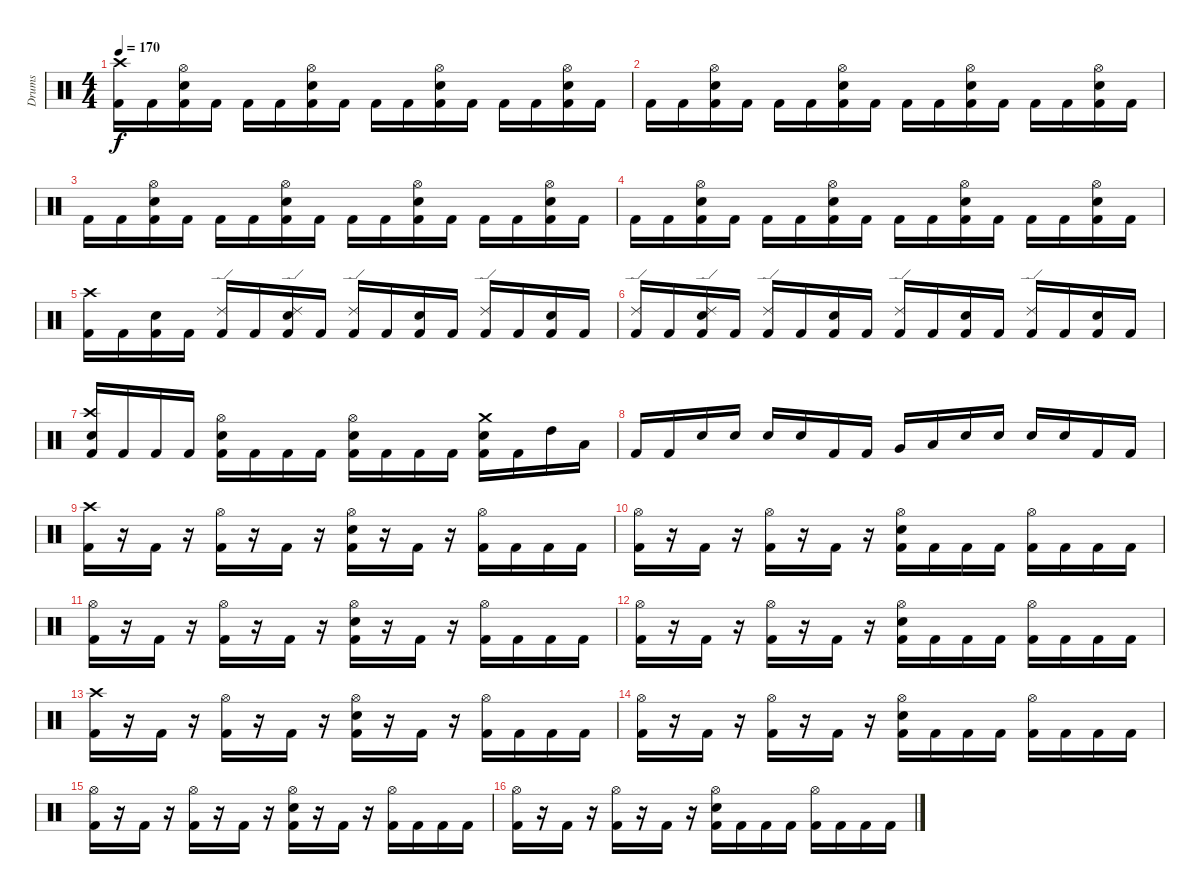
\track ("Drums" "Drums") {instrument percussion}
\staff {score}
\articulation defaults
\ts (4 4)
\tempo 170
\clef neutral
\ks c
("Kick (hit) 2" "Crash high (hit)").16{dy f} "Kick (hit) 2".16 ("Kick (hit) 2" "Electric Snare (hit)" "Hi-Hat (open)").16 "Kick (hit) 2".16 "Kick (hit) 2".16 "Kick (hit) 2".16 ("Kick (hit) 2" "Electric Snare (hit)" "Hi-Hat (open)").16 "Kick (hit) 2".16 "Kick (hit) 2".16 "Kick (hit) 2".16 ("Kick (hit) 2" "Electric Snare (hit)" "Hi-Hat (open)").16 "Kick (hit) 2".16 "Kick (hit) 2".16 "Kick (hit) 2".16 ("Kick (hit) 2" "Electric Snare (hit)" "Hi-Hat (open)").16 "Kick (hit) 2".16 |
"Kick (hit) 2".16 "Kick (hit) 2".16 ("Kick (hit) 2" "Electric Snare (hit)" "Hi-Hat (open)").16 "Kick (hit) 2".16 "Kick (hit) 2".16 "Kick (hit) 2".16 ("Kick (hit) 2" "Electric Snare (hit)" "Hi-Hat (open)").16 "Kick (hit) 2".16 "Kick (hit) 2".16 "Kick (hit) 2".16 ("Kick (hit) 2" "Electric Snare (hit)" "Hi-Hat (open)").16 "Kick (hit) 2".16 "Kick (hit) 2".16 "Kick (hit) 2".16 ("Kick (hit) 2" "Electric Snare (hit)" "Hi-Hat (open)").16 "Kick (hit) 2".16 |
"Kick (hit) 2".16 "Kick (hit) 2".16 ("Kick (hit) 2" "Electric Snare (hit)" "Hi-Hat (open)").16 "Kick (hit) 2".16 "Kick (hit) 2".16 "Kick (hit) 2".16 ("Kick (hit) 2" "Electric Snare (hit)" "Hi-Hat (open)").16 "Kick (hit) 2".16 "Kick (hit) 2".16 "Kick (hit) 2".16 ("Kick (hit) 2" "Electric Snare (hit)" "Hi-Hat (open)").16 "Kick (hit) 2".16 "Kick (hit) 2".16 "Kick (hit) 2".16 ("Kick (hit) 2" "Electric Snare (hit)" "Hi-Hat (open)").16 "Kick (hit) 2".16 |
"Kick (hit) 2".16 "Kick (hit) 2".16 ("Kick (hit) 2" "Electric Snare (hit)" "Hi-Hat (open)").16 "Kick (hit) 2".16 "Kick (hit) 2".16 "Kick (hit) 2".16 ("Kick (hit) 2" "Electric Snare (hit)" "Hi-Hat (open)").16 "Kick (hit) 2".16 "Kick (hit) 2".16 "Kick (hit) 2".16 ("Kick (hit) 2" "Electric Snare (hit)" "Hi-Hat (open)").16 "Kick (hit) 2".16 "Kick (hit) 2".16 "Kick (hit) 2".16 ("Kick (hit) 2" "Electric Snare (hit)" "Hi-Hat (open)").16 "Kick (hit) 2".16 |
("Kick (hit) 2" "Crash high (hit)").16 "Kick (hit) 2".16 ("Kick (hit) 2" "Electric Snare (hit)").16 "Kick (hit) 2".16 ("Kick (hit) 2" "Ride (edge) 2").16 "Kick (hit) 2".16 ("Kick (hit) 2" "Electric Snare (hit)" "Ride (edge) 2").16 "Kick (hit) 2".16 ("Kick (hit) 2" "Ride (edge) 2").16 "Kick (hit) 2".16 ("Kick (hit) 2" "Electric Snare (hit)").16 "Kick (hit) 2".16 ("Kick (hit) 2" "Ride (edge) 2").16 "Kick (hit) 2".16 ("Kick (hit) 2" "Electric Snare (hit)").16 "Kick (hit) 2".16 |
("Kick (hit) 2" "Ride (edge) 2").16 "Kick (hit) 2".16 ("Kick (hit) 2" "Electric Snare (hit)" "Ride (edge) 2").16 "Kick (hit) 2".16 ("Kick (hit) 2" "Ride (edge) 2").16 "Kick (hit) 2".16 ("Kick (hit) 2" "Electric Snare (hit)").16 "Kick (hit) 2".16 ("Kick (hit) 2" "Ride (edge) 2").16 "Kick (hit) 2".16 ("Kick (hit) 2" "Electric Snare (hit)").16 "Kick (hit) 2".16 ("Kick (hit) 2" "Ride (edge) 2").16 "Kick (hit) 2".16 ("Kick (hit) 2" "Electric Snare (hit)").16 "Kick (hit) 2".16 |
("Kick (hit) 2" "Electric Snare (hit)" "Crash high (hit)").16 "Kick (hit) 2".16 "Kick (hit) 2".16 "Kick (hit) 2".16 ("Kick (hit) 2" "Electric Snare (hit)" "Hi-Hat (open)").16 "Kick (hit) 2".16 "Kick (hit) 2".16 "Kick (hit) 2".16 ("Kick (hit) 2" "Electric Snare (hit)" "Hi-Hat (open)").16 "Kick (hit) 2".16 "Kick (hit) 2".16 "Kick (hit) 2".16 ("Kick (hit) 2" "Electric Snare (hit)" "Crash medium (hit)").16 "Kick (hit) 2".16 "High Tom (hit)".16 "Low Tom (hit)".16 |
"Kick (hit) 2".16 "Kick (hit) 2".16 "Electric Snare (hit)".16 "Electric Snare (hit)".16 "Electric Snare (hit)".16 "Electric Snare (hit)".16 "Kick (hit) 2".16 "Kick (hit) 2".16 "Very Low Tom (hit)".16 "Low Tom (hit)".16 "Electric Snare (hit)".16 "Electric Snare (hit)".16 "Electric Snare (hit)".16 "Electric Snare (hit)".16 "Kick (hit) 2".16 "Kick (hit) 2".16 |
("Kick (hit) 2" "Crash high (hit)").16 r.16 "Kick (hit) 2".16 r.16 ("Kick (hit) 2" "Hi-Hat (open)").16 r.16 "Kick (hit) 2".16 r.16 ("Kick (hit) 2" "Electric Snare (hit)" "Hi-Hat (open)").16 r.16 "Kick (hit) 2".16 r.16 ("Kick (hit) 2" "Hi-Hat (open)").16 "Kick (hit) 2".16 "Kick (hit) 2".16 "Kick (hit) 2".16 |
("Kick (hit) 2" "Hi-Hat (open)").16 r.16 "Kick (hit) 2".16 r.16 ("Kick (hit) 2" "Hi-Hat (open)").16 r.16 "Kick (hit) 2".16 r.16 ("Kick (hit) 2" "Electric Snare (hit)" "Hi-Hat (open)").16 "Kick (hit) 2".16 "Kick (hit) 2".16 "Kick (hit) 2".16 ("Kick (hit) 2" "Hi-Hat (open)").16 "Kick (hit) 2".16 "Kick (hit) 2".16 "Kick (hit) 2".16 |
("Kick (hit) 2" "Hi-Hat (open)").16 r.16 "Kick (hit) 2".16 r.16 ("Kick (hit) 2" "Hi-Hat (open)").16 r.16 "Kick (hit) 2".16 r.16 ("Kick (hit) 2" "Electric Snare (hit)" "Hi-Hat (open)").16 r.16 "Kick (hit) 2".16 r.16 ("Kick (hit) 2" "Hi-Hat (open)").16 "Kick (hit) 2".16 "Kick (hit) 2".16 "Kick (hit) 2".16 |
("Kick (hit) 2" "Hi-Hat (open)").16 r.16 "Kick (hit) 2".16 r.16 ("Kick (hit) 2" "Hi-Hat (open)").16 r.16 "Kick (hit) 2".16 r.16 ("Kick (hit) 2" "Electric Snare (hit)" "Hi-Hat (open)").16 "Kick (hit) 2".16 "Kick (hit) 2".16 "Kick (hit) 2".16 ("Kick (hit) 2" "Hi-Hat (open)").16 "Kick (hit) 2".16 "Kick (hit) 2".16 "Kick (hit) 2".16 |
("Kick (hit) 2" "Crash high (hit)").16 r.16 "Kick (hit) 2".16 r.16 ("Kick (hit) 2" "Hi-Hat (open)").16 r.16 "Kick (hit) 2".16 r.16 ("Kick (hit) 2" "Electric Snare (hit)" "Hi-Hat (open)").16 r.16 "Kick (hit) 2".16 r.16 ("Kick (hit) 2" "Hi-Hat (open)").16 "Kick (hit) 2".16 "Kick (hit) 2".16 "Kick (hit) 2".16 |
("Kick (hit) 2" "Hi-Hat (open)").16 r.16 "Kick (hit) 2".16 r.16 ("Kick (hit) 2" "Hi-Hat (open)").16 r.16 "Kick (hit) 2".16 r.16 ("Kick (hit) 2" "Electric Snare (hit)" "Hi-Hat (open)").16 "Kick (hit) 2".16 "Kick (hit) 2".16 "Kick (hit) 2".16 ("Kick (hit) 2" "Hi-Hat (open)").16 "Kick (hit) 2".16 "Kick (hit) 2".16 "Kick (hit) 2".16 |
("Kick (hit) 2" "Hi-Hat (open)").16 r.16 "Kick (hit) 2".16 r.16 ("Kick (hit) 2" "Hi-Hat (open)").16 r.16 "Kick (hit) 2".16 r.16 ("Kick (hit) 2" "Electric Snare (hit)" "Hi-Hat (open)").16 r.16 "Kick (hit) 2".16 r.16 ("Kick (hit) 2" "Hi-Hat (open)").16 "Kick (hit) 2".16 "Kick (hit) 2".16 "Kick (hit) 2".16 |
("Kick (hit) 2" "Hi-Hat (open)").16 r.16 "Kick (hit) 2".16 r.16 ("Kick (hit) 2" "Hi-Hat (open)").16 r.16 "Kick (hit) 2".16 r.16 ("Kick (hit) 2" "Electric Snare (hit)" "Hi-Hat (open)").16 "Kick (hit) 2".16 "Kick (hit) 2".16 "Kick (hit) 2".16 ("Kick (hit) 2" "Hi-Hat (open)").16 "Kick (hit) 2".16 "Kick (hit) 2".16 "Kick (hit) 2".16
